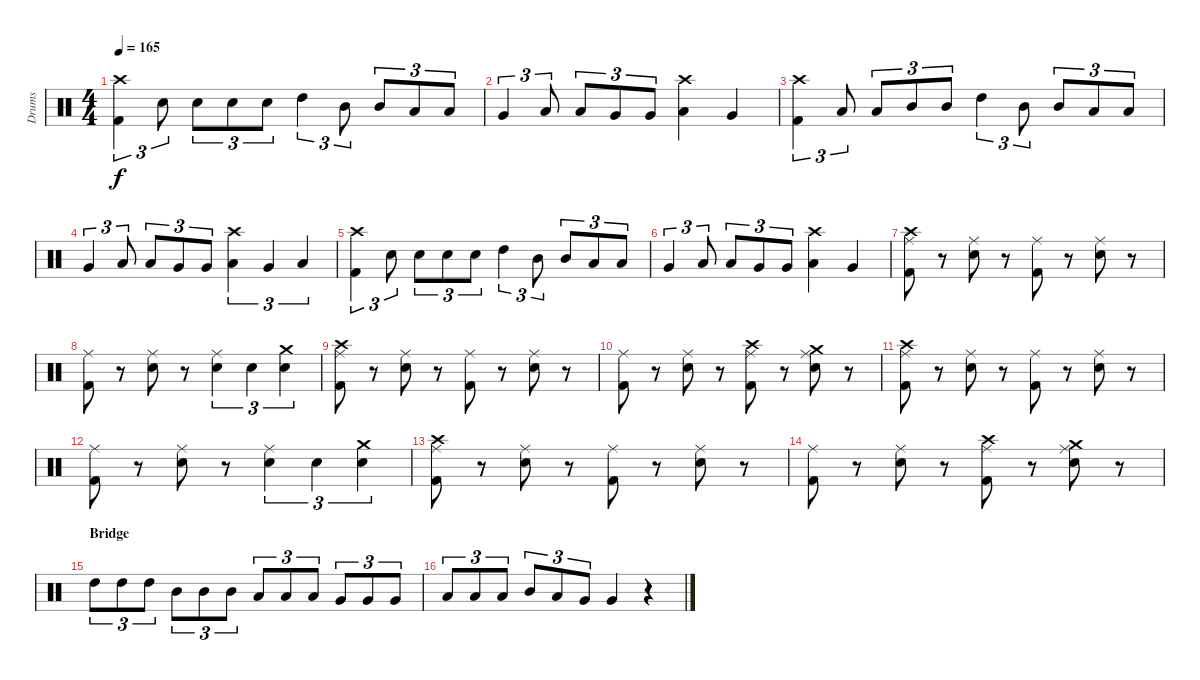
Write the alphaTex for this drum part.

\track ("Drums" "Drums") {instrument percussion}
\staff {score}
\articulation defaults
\ts (4 4)
\tempo 165
\clef neutral
\ks c
("Kick (hit) 2" "Crash high (hit)").4{tu (3 2) dy f} "Snare (hit) 2".8{tu (3 2)} "Snare (hit) 2".8{tu (3 2)} "Snare (hit) 2".8{tu (3 2)} "Snare (hit) 2".8{tu (3 2)} "High Tom (hit)".4{tu (3 2)} "Mid Tom (hit)".8{tu (3 2)} "Mid Tom (hit)".8{tu (3 2)} "Low Tom (hit)".8{tu (3 2)} "Low Tom (hit)".8{tu (3 2)} |
"Very Low Tom (hit)".4{tu (3 2)} "Low Tom (hit)".8{tu (3 2)} "Low Tom (hit)".8{tu (3 2)} "Very Low Tom (hit)".8{tu (3 2)} "Very Low Tom (hit)".8{tu (3 2)} ("Low Floor Tom (hit)" "Crash high (hit)").4 "Very Low Tom (hit)".4 |
("Kick (hit) 2" "Crash high (hit)").4{tu (3 2)} "Low Tom (hit)".8{tu (3 2)} "Low Tom (hit)".8{tu (3 2)} "Mid Tom (hit)".8{tu (3 2)} "Mid Tom (hit)".8{tu (3 2)} "High Tom (hit)".4{tu (3 2)} "Mid Tom (hit)".8{tu (3 2)} "Mid Tom (hit)".8{tu (3 2)} "Low Tom (hit)".8{tu (3 2)} "Low Tom (hit)".8{tu (3 2)} |
"Very Low Tom (hit)".4{tu (3 2)} "Low Tom (hit)".8{tu (3 2)} "Low Tom (hit)".8{tu (3 2)} "Very Low Tom (hit)".8{tu (3 2)} "Very Low Tom (hit)".8{tu (3 2)} ("Low Floor Tom (hit)" "Crash high (hit)").4{tu (3 2)} "Very Low Tom (hit)".4{tu (3 2)} "Low Tom (hit)".4{tu (3 2)} |
("Kick (hit) 2" "Crash high (hit)").4{tu (3 2)} "Snare (hit) 2".8{tu (3 2)} "Snare (hit) 2".8{tu (3 2)} "Snare (hit) 2".8{tu (3 2)} "Snare (hit) 2".8{tu (3 2)} "High Tom (hit)".4{tu (3 2)} "Mid Tom (hit)".8{tu (3 2)} "Mid Tom (hit)".8{tu (3 2)} "Low Tom (hit)".8{tu (3 2)} "Low Tom (hit)".8{tu (3 2)} |
"Very Low Tom (hit)".4{tu (3 2)} "Low Tom (hit)".8{tu (3 2)} "Low Tom (hit)".8{tu (3 2)} "Very Low Tom (hit)".8{tu (3 2)} "Very Low Tom (hit)".8{tu (3 2)} ("Low Floor Tom (hit)" "Crash high (hit)").4 "Very Low Tom (hit)".4 |
("Ride (middle)" "Kick (hit) 2" "Crash high (hit)").8 r.8 ("Ride (middle)" "Snare (hit) 2").8 r.8 ("Ride (middle)" "Kick (hit) 2").8 r.8 ("Ride (middle)" "Snare (hit) 2").8 r.8 |
("Ride (middle)" "Kick (hit) 2").8 r.8 ("Ride (middle)" "Snare (hit) 2").8 r.8 ("Ride (middle)" "Snare (hit) 2").4{tu (3 2)} "Snare (hit) 2".4{tu (3 2)} ("Snare (hit) 2" "Crash medium (hit)").4{tu (3 2)} |
("Ride (middle)" "Kick (hit) 2" "Crash high (hit)").8 r.8 ("Ride (middle)" "Snare (hit) 2").8 r.8 ("Ride (middle)" "Kick (hit) 2").8 r.8 ("Ride (middle)" "Snare (hit) 2").8 r.8 |
("Ride (middle)" "Kick (hit) 2").8 r.8 ("Ride (middle)" "Snare (hit) 2").8 r.8 ("Ride (middle)" "Kick (hit) 2" "Crash high (hit)").8 r.8 ("Ride (middle)" "Snare (hit) 2" "Crash medium (hit)").8 r.8 |
("Ride (middle)" "Kick (hit) 2" "Crash high (hit)").8 r.8 ("Ride (middle)" "Snare (hit) 2").8 r.8 ("Ride (middle)" "Kick (hit) 2").8 r.8 ("Ride (middle)" "Snare (hit) 2").8 r.8 |
("Ride (middle)" "Kick (hit) 2").8 r.8 ("Ride (middle)" "Snare (hit) 2").8 r.8 ("Ride (middle)" "Snare (hit) 2").4{tu (3 2)} "Snare (hit) 2".4{tu (3 2)} ("Snare (hit) 2" "Crash medium (hit)").4{tu (3 2)} |
("Ride (middle)" "Kick (hit) 2" "Crash high (hit)").8 r.8 ("Ride (middle)" "Snare (hit) 2").8 r.8 ("Ride (middle)" "Kick (hit) 2").8 r.8 ("Ride (middle)" "Snare (hit) 2").8 r.8 |
("Ride (middle)" "Kick (hit) 2").8 r.8 ("Ride (middle)" "Snare (hit) 2").8 r.8 ("Ride (middle)" "Kick (hit) 2" "Crash high (hit)").8 r.8 ("Ride (middle)" "Snare (hit) 2" "Crash medium (hit)").8 r.8 |
\section ("" "Bridge")
"High Tom (hit)".8{tu (3 2)} "High Tom (hit)".8{tu (3 2)} "High Tom (hit)".8{tu (3 2)} "Mid Tom (hit)".8{tu (3 2)} "Mid Tom (hit)".8{tu (3 2)} "Mid Tom (hit)".8{tu (3 2)} "Low Tom (hit)".8{tu (3 2)} "Low Tom (hit)".8{tu (3 2)} "Low Tom (hit)".8{tu (3 2)} "Very Low Tom (hit)".8{tu (3 2)} "Very Low Tom (hit)".8{tu (3 2)} "Very Low Tom (hit)".8{tu (3 2)} |
"Low Floor Tom (hit)".8{tu (3 2)} "Low Floor Tom (hit)".8{tu (3 2)} "Low Floor Tom (hit)".8{tu (3 2)} "Mid Tom (hit)".8{tu (3 2)} "Low Tom (hit)".8{tu (3 2)} "Very Low Tom (hit)".8{tu (3 2)} "Very Low Tom (hit)".4 r.4
